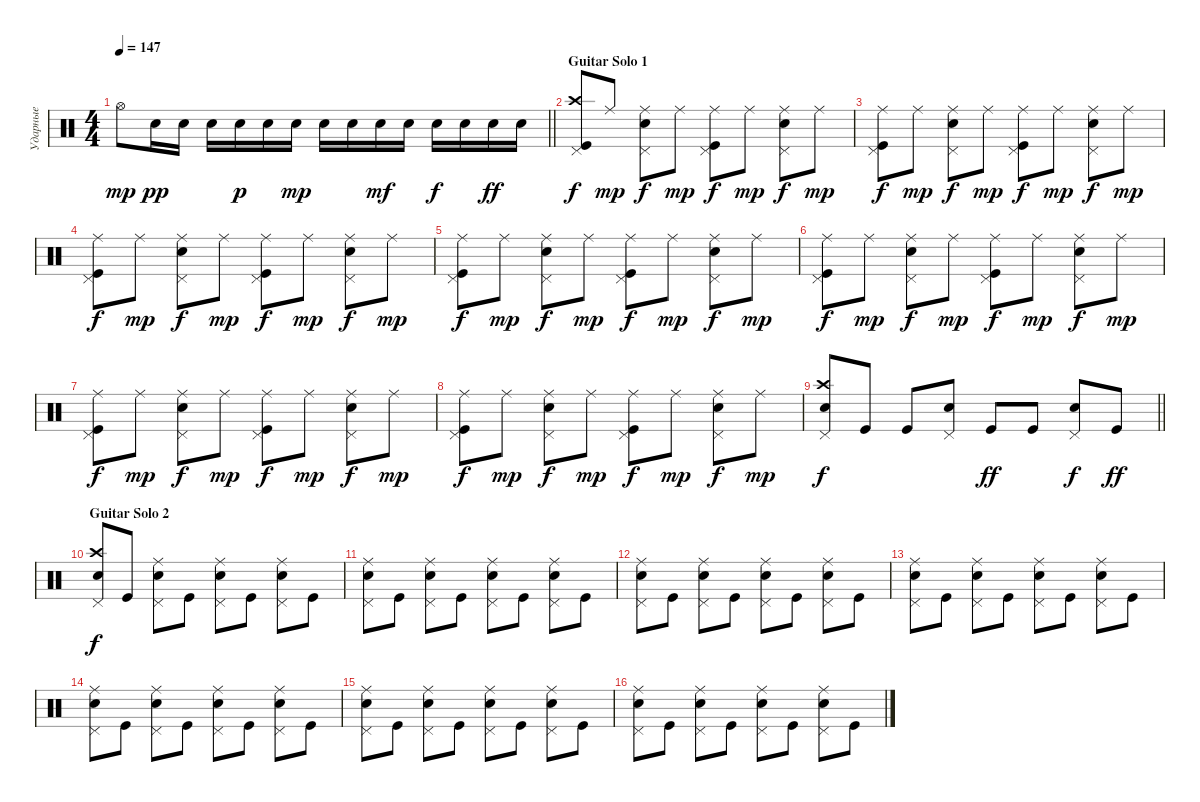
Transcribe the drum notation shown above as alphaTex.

\track ("Ударные" "Ударные") {instrument percussion}
\staff {score}
\articulation defaults
\ts (4 4)
\tempo 147
\clef neutral
\barLineRight lightlight
\ks c "Hi-Hat (open)".8{dy mp} "Snare (hit) 2".16{dy pp} "Snare (hit) 2".16 "Snare (hit) 2".16 "Snare (hit) 2".16{dy p} "Snare (hit) 2".16 "Snare (hit) 2".16{dy mp} "Snare (hit) 2".16 "Snare (hit) 2".16 "Snare (hit) 2".16{dy mf} "Snare (hit) 2".16 "Snare (hit) 2".16{dy f} "Snare (hit) 2".16 "Snare (hit) 2".16{dy ff} "Snare (hit) 2".16
|
\section ("" "Guitar Solo 1")
("Kick (hit)" "Crash high (hit)" "Pedal Hi-Hat (hit)").8{dy f} "Ride (middle)".8{dy mp} ("Snare (hit) 2" "Ride (middle)" "Pedal Hi-Hat (hit)").8{dy f} "Ride (middle)".8{dy mp} ("Kick (hit)" "Pedal Hi-Hat (hit)" "Ride (middle)").8{dy f} "Ride (middle)".8{dy mp} ("Snare (hit) 2" "Pedal Hi-Hat (hit)" "Ride (middle)").8{dy f} "Ride (middle)".8{dy mp} |
("Kick (hit)" "Ride (middle)" "Pedal Hi-Hat (hit)").8{dy f} "Ride (middle)".8{dy mp} ("Snare (hit) 2" "Ride (middle)" "Pedal Hi-Hat (hit)").8{dy f} "Ride (middle)".8{dy mp} ("Kick (hit)" "Pedal Hi-Hat (hit)" "Ride (middle)").8{dy f} "Ride (middle)".8{dy mp} ("Snare (hit) 2" "Pedal Hi-Hat (hit)" "Ride (middle)").8{dy f} "Ride (middle)".8{dy mp} |
("Kick (hit)" "Ride (middle)" "Pedal Hi-Hat (hit)").8{dy f} "Ride (middle)".8{dy mp} ("Snare (hit) 2" "Ride (middle)" "Pedal Hi-Hat (hit)").8{dy f} "Ride (middle)".8{dy mp} ("Kick (hit)" "Pedal Hi-Hat (hit)" "Ride (middle)").8{dy f} "Ride (middle)".8{dy mp} ("Snare (hit) 2" "Pedal Hi-Hat (hit)" "Ride (middle)").8{dy f} "Ride (middle)".8{dy mp} |
("Kick (hit)" "Ride (middle)" "Pedal Hi-Hat (hit)").8{dy f} "Ride (middle)".8{dy mp} ("Snare (hit) 2" "Ride (middle)" "Pedal Hi-Hat (hit)").8{dy f} "Ride (middle)".8{dy mp} ("Kick (hit)" "Pedal Hi-Hat (hit)" "Ride (middle)").8{dy f} "Ride (middle)".8{dy mp} ("Snare (hit) 2" "Pedal Hi-Hat (hit)" "Ride (middle)").8{dy f} "Ride (middle)".8{dy mp} |
("Kick (hit)" "Ride (middle)" "Pedal Hi-Hat (hit)").8{dy f} "Ride (middle)".8{dy mp} ("Snare (hit) 2" "Ride (middle)" "Pedal Hi-Hat (hit)").8{dy f} "Ride (middle)".8{dy mp} ("Kick (hit)" "Pedal Hi-Hat (hit)" "Ride (middle)").8{dy f} "Ride (middle)".8{dy mp} ("Snare (hit) 2" "Pedal Hi-Hat (hit)" "Ride (middle)").8{dy f} "Ride (middle)".8{dy mp} |
("Kick (hit)" "Ride (middle)" "Pedal Hi-Hat (hit)").8{dy f} "Ride (middle)".8{dy mp} ("Snare (hit) 2" "Ride (middle)" "Pedal Hi-Hat (hit)").8{dy f} "Ride (middle)".8{dy mp} ("Kick (hit)" "Pedal Hi-Hat (hit)" "Ride (middle)").8{dy f} "Ride (middle)".8{dy mp} ("Snare (hit) 2" "Pedal Hi-Hat (hit)" "Ride (middle)").8{dy f} "Ride (middle)".8{dy mp} |
("Kick (hit)" "Ride (middle)" "Pedal Hi-Hat (hit)").8{dy f} "Ride (middle)".8{dy mp} ("Snare (hit) 2" "Ride (middle)" "Pedal Hi-Hat (hit)").8{dy f} "Ride (middle)".8{dy mp} ("Kick (hit)" "Pedal Hi-Hat (hit)" "Ride (middle)").8{dy f} "Ride (middle)".8{dy mp} ("Snare (hit) 2" "Pedal Hi-Hat (hit)" "Ride (middle)").8{dy f} "Ride (middle)".8{dy mp} |
\barLineRight lightlight
("Snare (hit) 2" "Crash high (hit)" "Pedal Hi-Hat (hit)").8{dy f} "Kick (hit)".8 "Kick (hit)".8 ("Snare (hit) 2" "Pedal Hi-Hat (hit)").8 "Kick (hit)".8{dy ff} "Kick (hit)".8 ("Snare (hit) 2" "Pedal Hi-Hat (hit)").8{dy f} "Kick (hit)".8{dy ff} |
\section ("" "Guitar Solo 2")
("Snare (hit) 2" "Crash high (hit)" "Pedal Hi-Hat (hit)").8{dy f} "Kick (hit)".8 ("Snare (hit) 2" "Ride (middle)" "Pedal Hi-Hat (hit)").8 "Kick (hit)".8 ("Snare (hit) 2" "Ride (middle)" "Pedal Hi-Hat (hit)").8 "Kick (hit)".8 ("Snare (hit) 2" "Ride (middle)" "Pedal Hi-Hat (hit)").8 "Kick (hit)".8 |
("Snare (hit) 2" "Ride (middle)" "Pedal Hi-Hat (hit)").8 "Kick (hit)".8 ("Snare (hit) 2" "Ride (middle)" "Pedal Hi-Hat (hit)").8 "Kick (hit)".8 ("Snare (hit) 2" "Ride (middle)" "Pedal Hi-Hat (hit)").8 "Kick (hit)".8 ("Snare (hit) 2" "Ride (middle)" "Pedal Hi-Hat (hit)").8 "Kick (hit)".8 |
("Snare (hit) 2" "Ride (middle)" "Pedal Hi-Hat (hit)").8 "Kick (hit)".8 ("Snare (hit) 2" "Ride (middle)" "Pedal Hi-Hat (hit)").8 "Kick (hit)".8 ("Snare (hit) 2" "Ride (middle)" "Pedal Hi-Hat (hit)").8 "Kick (hit)".8 ("Snare (hit) 2" "Ride (middle)" "Pedal Hi-Hat (hit)").8 "Kick (hit)".8 |
("Snare (hit) 2" "Ride (middle)" "Pedal Hi-Hat (hit)").8 "Kick (hit)".8 ("Snare (hit) 2" "Ride (middle)" "Pedal Hi-Hat (hit)").8 "Kick (hit)".8 ("Snare (hit) 2" "Ride (middle)" "Pedal Hi-Hat (hit)").8 "Kick (hit)".8 ("Snare (hit) 2" "Ride (middle)" "Pedal Hi-Hat (hit)").8 "Kick (hit)".8 |
("Snare (hit) 2" "Ride (middle)" "Pedal Hi-Hat (hit)").8 "Kick (hit)".8 ("Snare (hit) 2" "Ride (middle)" "Pedal Hi-Hat (hit)").8 "Kick (hit)".8 ("Snare (hit) 2" "Ride (middle)" "Pedal Hi-Hat (hit)").8 "Kick (hit)".8 ("Snare (hit) 2" "Ride (middle)" "Pedal Hi-Hat (hit)").8 "Kick (hit)".8 |
("Snare (hit) 2" "Ride (middle)" "Pedal Hi-Hat (hit)").8 "Kick (hit)".8 ("Snare (hit) 2" "Ride (middle)" "Pedal Hi-Hat (hit)").8 "Kick (hit)".8 ("Snare (hit) 2" "Ride (middle)" "Pedal Hi-Hat (hit)").8 "Kick (hit)".8 ("Snare (hit) 2" "Ride (middle)" "Pedal Hi-Hat (hit)").8 "Kick (hit)".8 |
("Snare (hit) 2" "Ride (middle)" "Pedal Hi-Hat (hit)").8 "Kick (hit)".8 ("Snare (hit) 2" "Ride (middle)" "Pedal Hi-Hat (hit)").8 "Kick (hit)".8 ("Snare (hit) 2" "Ride (middle)" "Pedal Hi-Hat (hit)").8 "Kick (hit)".8 ("Snare (hit) 2" "Ride (middle)" "Pedal Hi-Hat (hit)").8 "Kick (hit)".8
